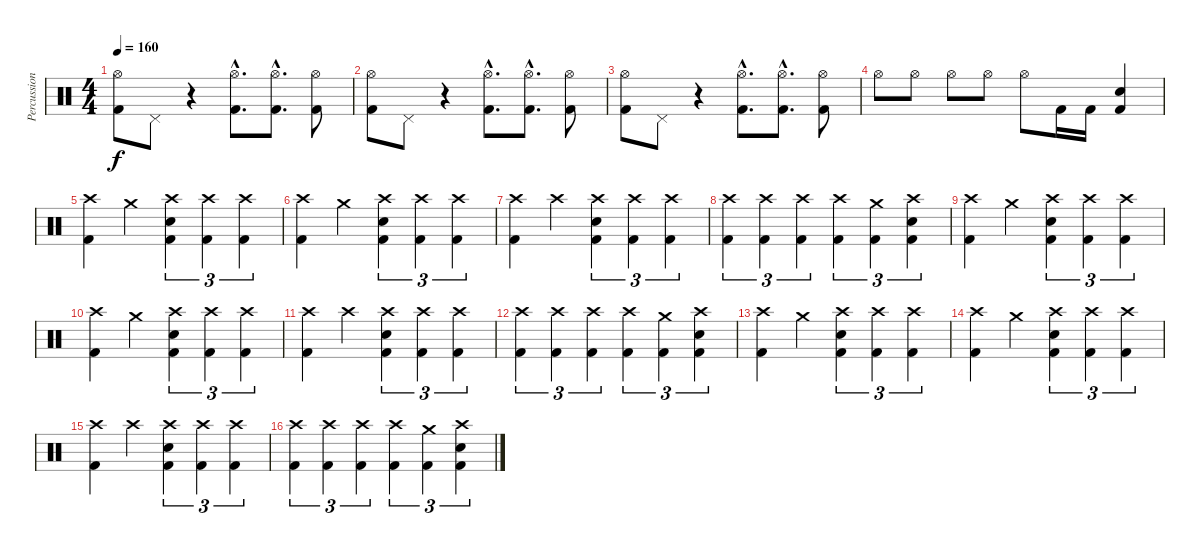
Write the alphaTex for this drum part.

\track ("Percussion" "Percussion") {instrument percussion}
\staff {score}
\articulation defaults
\ts (4 4)
\tempo 160
\clef neutral
\ks c
("Hi-Hat (open)" "Kick (hit) 2").8{dy f} "Pedal Hi-Hat (hit)".8 r.4 ("Hi-Hat (open)"{hac} "Kick (hit) 2"{hac}).8{d} ("Hi-Hat (open)"{hac} "Kick (hit) 2"{hac}).8{d} ("Hi-Hat (open)" "Kick (hit) 2").8 |
("Hi-Hat (open)" "Kick (hit) 2").8 "Pedal Hi-Hat (hit)".8 r.4 ("Hi-Hat (open)"{hac} "Kick (hit) 2"{hac}).8{d} ("Hi-Hat (open)"{hac} "Kick (hit) 2"{hac}).8{d} ("Hi-Hat (open)" "Kick (hit) 2").8 |
("Hi-Hat (open)" "Kick (hit) 2").8 "Pedal Hi-Hat (hit)".8 r.4 ("Hi-Hat (open)"{hac} "Kick (hit) 2"{hac}).8{d} ("Hi-Hat (open)"{hac} "Kick (hit) 2"{hac}).8{d} ("Hi-Hat (open)" "Kick (hit) 2").8 |
"Hi-Hat (open)".8 "Hi-Hat (open)".8 "Hi-Hat (open)".8 "Hi-Hat (open)".8 "Hi-Hat (open)".8 "Kick (hit) 2".16 "Kick (hit) 2".16 ("Electric Snare (hit)" "Kick (hit) 2").4 |
("Crash high (hit)" "Kick (hit) 2").4 "Crash medium (hit)".4 ("Crash high (hit)" "Electric Snare (hit)" "Kick (hit) 2").4{tu (3 2)} ("Crash high (hit)" "Kick (hit) 2").4{tu (3 2)} ("Crash high (hit)" "Kick (hit) 2").4{tu (3 2)} |
("Crash high (hit)" "Kick (hit) 2").4 "Crash medium (hit)".4 ("Crash high (hit)" "Electric Snare (hit)" "Kick (hit) 2").4{tu (3 2)} ("Crash high (hit)" "Kick (hit) 2").4{tu (3 2)} ("Crash high (hit)" "Kick (hit) 2").4{tu (3 2)} |
("Crash high (hit)" "Kick (hit) 2").4 "Crash high (hit)".4 ("Crash high (hit)" "Electric Snare (hit)" "Kick (hit) 2").4{tu (3 2)} ("Crash high (hit)" "Kick (hit) 2").4{tu (3 2)} ("Crash high (hit)" "Kick (hit) 2").4{tu (3 2)} |
("Crash high (hit)" "Kick (hit) 2").4{tu (3 2)} ("Crash high (hit)" "Kick (hit) 2").4{tu (3 2)} ("Crash high (hit)" "Kick (hit) 2").4{tu (3 2)} ("Crash high (hit)" "Kick (hit) 2").4{tu (3 2)} ("Crash medium (hit)" "Kick (hit) 2").4{tu (3 2)} ("Crash high (hit)" "Electric Snare (hit)" "Kick (hit) 2").4{tu (3 2)} |
("Crash high (hit)" "Kick (hit) 2").4 "Crash medium (hit)".4 ("Crash high (hit)" "Electric Snare (hit)" "Kick (hit) 2").4{tu (3 2)} ("Crash high (hit)" "Kick (hit) 2").4{tu (3 2)} ("Crash high (hit)" "Kick (hit) 2").4{tu (3 2)} |
("Crash high (hit)" "Kick (hit) 2").4 "Crash medium (hit)".4 ("Crash high (hit)" "Electric Snare (hit)" "Kick (hit) 2").4{tu (3 2)} ("Crash high (hit)" "Kick (hit) 2").4{tu (3 2)} ("Crash high (hit)" "Kick (hit) 2").4{tu (3 2)} |
("Crash high (hit)" "Kick (hit) 2").4 "Crash high (hit)".4 ("Crash high (hit)" "Electric Snare (hit)" "Kick (hit) 2").4{tu (3 2)} ("Crash high (hit)" "Kick (hit) 2").4{tu (3 2)} ("Crash high (hit)" "Kick (hit) 2").4{tu (3 2)} |
("Crash high (hit)" "Kick (hit) 2").4{tu (3 2)} ("Crash high (hit)" "Kick (hit) 2").4{tu (3 2)} ("Crash high (hit)" "Kick (hit) 2").4{tu (3 2)} ("Crash high (hit)" "Kick (hit) 2").4{tu (3 2)} ("Crash medium (hit)" "Kick (hit) 2").4{tu (3 2)} ("Crash high (hit)" "Electric Snare (hit)" "Kick (hit) 2").4{tu (3 2)} |
("Crash high (hit)" "Kick (hit) 2").4 "Crash medium (hit)".4 ("Crash high (hit)" "Electric Snare (hit)" "Kick (hit) 2").4{tu (3 2)} ("Crash high (hit)" "Kick (hit) 2").4{tu (3 2)} ("Crash high (hit)" "Kick (hit) 2").4{tu (3 2)} |
("Crash high (hit)" "Kick (hit) 2").4 "Crash medium (hit)".4 ("Crash high (hit)" "Electric Snare (hit)" "Kick (hit) 2").4{tu (3 2)} ("Crash high (hit)" "Kick (hit) 2").4{tu (3 2)} ("Crash high (hit)" "Kick (hit) 2").4{tu (3 2)} |
("Crash high (hit)" "Kick (hit) 2").4 "Crash high (hit)".4 ("Crash high (hit)" "Electric Snare (hit)" "Kick (hit) 2").4{tu (3 2)} ("Crash high (hit)" "Kick (hit) 2").4{tu (3 2)} ("Crash high (hit)" "Kick (hit) 2").4{tu (3 2)} |
("Crash high (hit)" "Kick (hit) 2").4{tu (3 2)} ("Crash high (hit)" "Kick (hit) 2").4{tu (3 2)} ("Crash high (hit)" "Kick (hit) 2").4{tu (3 2)} ("Crash high (hit)" "Kick (hit) 2").4{tu (3 2)} ("Crash medium (hit)" "Kick (hit) 2").4{tu (3 2)} ("Crash high (hit)" "Electric Snare (hit)" "Kick (hit) 2").4{tu (3 2)}
